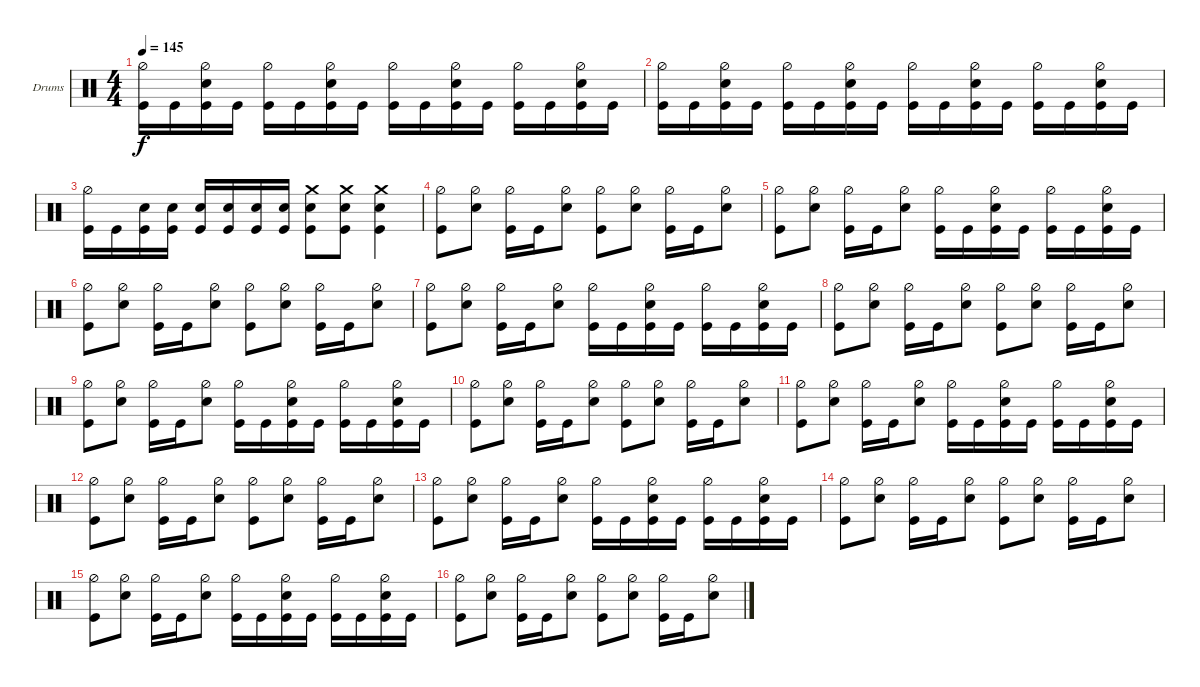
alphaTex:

\bracketExtendMode groupsimilarinstruments
\firstSystemTrackNameOrientation horizontal
\otherSystemsTrackNameOrientation horizontal
\track ("Drumkit" "Drums") {instrument percussion}
\staff {score}
\articulation defaults
\ts (4 4)
\tempo 145
\clef neutral
\ks c
("Kick (hit)" "Hi-Hat (half)").16{dy f} "Kick (hit)".16 ("Snare (hit) 2" "Kick (hit)" "Hi-Hat (half)").16 "Kick (hit)".16 ("Kick (hit)" "Hi-Hat (half)").16 "Kick (hit)".16 ("Snare (hit) 2" "Kick (hit)" "Hi-Hat (half)").16 "Kick (hit)".16 ("Kick (hit)" "Hi-Hat (half)").16 "Kick (hit)".16 ("Snare (hit) 2" "Kick (hit)" "Hi-Hat (half)").16 "Kick (hit)".16 ("Kick (hit)" "Hi-Hat (half)").16 "Kick (hit)".16 ("Snare (hit) 2" "Kick (hit)" "Hi-Hat (half)").16 "Kick (hit)".16 |
("Kick (hit)" "Hi-Hat (half)").16 "Kick (hit)".16 ("Snare (hit) 2" "Kick (hit)" "Hi-Hat (half)").16 "Kick (hit)".16 ("Kick (hit)" "Hi-Hat (half)").16 "Kick (hit)".16 ("Snare (hit) 2" "Kick (hit)" "Hi-Hat (half)").16 "Kick (hit)".16 ("Kick (hit)" "Hi-Hat (half)").16 "Kick (hit)".16 ("Snare (hit) 2" "Kick (hit)" "Hi-Hat (half)").16 "Kick (hit)".16 ("Kick (hit)" "Hi-Hat (half)").16 "Kick (hit)".16 ("Snare (hit) 2" "Kick (hit)" "Hi-Hat (half)").16 "Kick (hit)".16 |
("Kick (hit)" "Hi-Hat (half)").16 "Kick (hit)".16 ("Snare (hit) 2" "Kick (hit)").16 ("Snare (hit) 2" "Kick (hit)").16 ("Snare (hit) 2" "Kick (hit)").16 ("Snare (hit) 2" "Kick (hit)").16 ("Snare (hit) 2" "Kick (hit)").16 ("Snare (hit) 2" "Kick (hit)").16 ("Crash medium (hit)" "Snare (hit) 2" "Kick (hit)").8 ("Crash medium (hit)" "Snare (hit) 2" "Kick (hit)").8 ("Crash medium (hit)" "Snare (hit) 2" "Kick (hit)").4 |
("Kick (hit)" "Hi-Hat (half)").8 ("Snare (hit) 2" "Hi-Hat (half)").8 ("Kick (hit)" "Hi-Hat (half)").16 "Kick (hit)".16 ("Snare (hit) 2" "Hi-Hat (half)").8 ("Kick (hit)" "Hi-Hat (half)").8 ("Snare (hit) 2" "Hi-Hat (half)").8 ("Kick (hit)" "Hi-Hat (half)").16 "Kick (hit)".16 ("Snare (hit) 2" "Hi-Hat (half)").8 |
("Kick (hit)" "Hi-Hat (half)").8 ("Snare (hit) 2" "Hi-Hat (half)").8 ("Kick (hit)" "Hi-Hat (half)").16 "Kick (hit)".16 ("Snare (hit) 2" "Hi-Hat (half)").8 ("Kick (hit)" "Hi-Hat (half)").16 "Kick (hit)".16 ("Snare (hit) 2" "Kick (hit)" "Hi-Hat (half)").16 "Kick (hit)".16 ("Kick (hit)" "Hi-Hat (half)").16 "Kick (hit)".16 ("Snare (hit) 2" "Kick (hit)" "Hi-Hat (half)").16 "Kick (hit)".16 |
("Kick (hit)" "Hi-Hat (half)").8 ("Snare (hit) 2" "Hi-Hat (half)").8 ("Kick (hit)" "Hi-Hat (half)").16 "Kick (hit)".16 ("Snare (hit) 2" "Hi-Hat (half)").8 ("Kick (hit)" "Hi-Hat (half)").8 ("Snare (hit) 2" "Hi-Hat (half)").8 ("Kick (hit)" "Hi-Hat (half)").16 "Kick (hit)".16 ("Snare (hit) 2" "Hi-Hat (half)").8 |
("Kick (hit)" "Hi-Hat (half)").8 ("Snare (hit) 2" "Hi-Hat (half)").8 ("Kick (hit)" "Hi-Hat (half)").16 "Kick (hit)".16 ("Snare (hit) 2" "Hi-Hat (half)").8 ("Kick (hit)" "Hi-Hat (half)").16 "Kick (hit)".16 ("Snare (hit) 2" "Kick (hit)" "Hi-Hat (half)").16 "Kick (hit)".16 ("Kick (hit)" "Hi-Hat (half)").16 "Kick (hit)".16 ("Snare (hit) 2" "Kick (hit)" "Hi-Hat (half)").16 "Kick (hit)".16 |
("Kick (hit)" "Hi-Hat (half)").8 ("Snare (hit) 2" "Hi-Hat (half)").8 ("Kick (hit)" "Hi-Hat (half)").16 "Kick (hit)".16 ("Snare (hit) 2" "Hi-Hat (half)").8 ("Kick (hit)" "Hi-Hat (half)").8 ("Snare (hit) 2" "Hi-Hat (half)").8 ("Kick (hit)" "Hi-Hat (half)").16 "Kick (hit)".16 ("Snare (hit) 2" "Hi-Hat (half)").8 |
("Kick (hit)" "Hi-Hat (half)").8 ("Snare (hit) 2" "Hi-Hat (half)").8 ("Kick (hit)" "Hi-Hat (half)").16 "Kick (hit)".16 ("Snare (hit) 2" "Hi-Hat (half)").8 ("Kick (hit)" "Hi-Hat (half)").16 "Kick (hit)".16 ("Snare (hit) 2" "Kick (hit)" "Hi-Hat (half)").16 "Kick (hit)".16 ("Kick (hit)" "Hi-Hat (half)").16 "Kick (hit)".16 ("Snare (hit) 2" "Kick (hit)" "Hi-Hat (half)").16 "Kick (hit)".16 |
("Kick (hit)" "Hi-Hat (half)").8 ("Snare (hit) 2" "Hi-Hat (half)").8 ("Kick (hit)" "Hi-Hat (half)").16 "Kick (hit)".16 ("Snare (hit) 2" "Hi-Hat (half)").8 ("Kick (hit)" "Hi-Hat (half)").8 ("Snare (hit) 2" "Hi-Hat (half)").8 ("Kick (hit)" "Hi-Hat (half)").16 "Kick (hit)".16 ("Snare (hit) 2" "Hi-Hat (half)").8 |
("Kick (hit)" "Hi-Hat (half)").8 ("Snare (hit) 2" "Hi-Hat (half)").8 ("Kick (hit)" "Hi-Hat (half)").16 "Kick (hit)".16 ("Snare (hit) 2" "Hi-Hat (half)").8 ("Kick (hit)" "Hi-Hat (half)").16 "Kick (hit)".16 ("Snare (hit) 2" "Kick (hit)" "Hi-Hat (half)").16 "Kick (hit)".16 ("Kick (hit)" "Hi-Hat (half)").16 "Kick (hit)".16 ("Snare (hit) 2" "Kick (hit)" "Hi-Hat (half)").16 "Kick (hit)".16 |
("Kick (hit)" "Hi-Hat (half)").8 ("Snare (hit) 2" "Hi-Hat (half)").8 ("Kick (hit)" "Hi-Hat (half)").16 "Kick (hit)".16 ("Snare (hit) 2" "Hi-Hat (half)").8 ("Kick (hit)" "Hi-Hat (half)").8 ("Snare (hit) 2" "Hi-Hat (half)").8 ("Kick (hit)" "Hi-Hat (half)").16 "Kick (hit)".16 ("Snare (hit) 2" "Hi-Hat (half)").8 |
("Kick (hit)" "Hi-Hat (half)").8 ("Snare (hit) 2" "Hi-Hat (half)").8 ("Kick (hit)" "Hi-Hat (half)").16 "Kick (hit)".16 ("Snare (hit) 2" "Hi-Hat (half)").8 ("Kick (hit)" "Hi-Hat (half)").16 "Kick (hit)".16 ("Snare (hit) 2" "Kick (hit)" "Hi-Hat (half)").16 "Kick (hit)".16 ("Kick (hit)" "Hi-Hat (half)").16 "Kick (hit)".16 ("Snare (hit) 2" "Kick (hit)" "Hi-Hat (half)").16 "Kick (hit)".16 |
("Kick (hit)" "Hi-Hat (half)").8 ("Snare (hit) 2" "Hi-Hat (half)").8 ("Kick (hit)" "Hi-Hat (half)").16 "Kick (hit)".16 ("Snare (hit) 2" "Hi-Hat (half)").8 ("Kick (hit)" "Hi-Hat (half)").8 ("Snare (hit) 2" "Hi-Hat (half)").8 ("Kick (hit)" "Hi-Hat (half)").16 "Kick (hit)".16 ("Snare (hit) 2" "Hi-Hat (half)").8 |
("Kick (hit)" "Hi-Hat (half)").8 ("Snare (hit) 2" "Hi-Hat (half)").8 ("Kick (hit)" "Hi-Hat (half)").16 "Kick (hit)".16 ("Snare (hit) 2" "Hi-Hat (half)").8 ("Kick (hit)" "Hi-Hat (half)").16 "Kick (hit)".16 ("Snare (hit) 2" "Kick (hit)" "Hi-Hat (half)").16 "Kick (hit)".16 ("Kick (hit)" "Hi-Hat (half)").16 "Kick (hit)".16 ("Snare (hit) 2" "Kick (hit)" "Hi-Hat (half)").16 "Kick (hit)".16 |
("Kick (hit)" "Hi-Hat (half)").8 ("Snare (hit) 2" "Hi-Hat (half)").8 ("Kick (hit)" "Hi-Hat (half)").16 "Kick (hit)".16 ("Snare (hit) 2" "Hi-Hat (half)").8 ("Kick (hit)" "Hi-Hat (half)").8 ("Snare (hit) 2" "Hi-Hat (half)").8 ("Kick (hit)" "Hi-Hat (half)").16 "Kick (hit)".16 ("Snare (hit) 2" "Hi-Hat (half)").8
